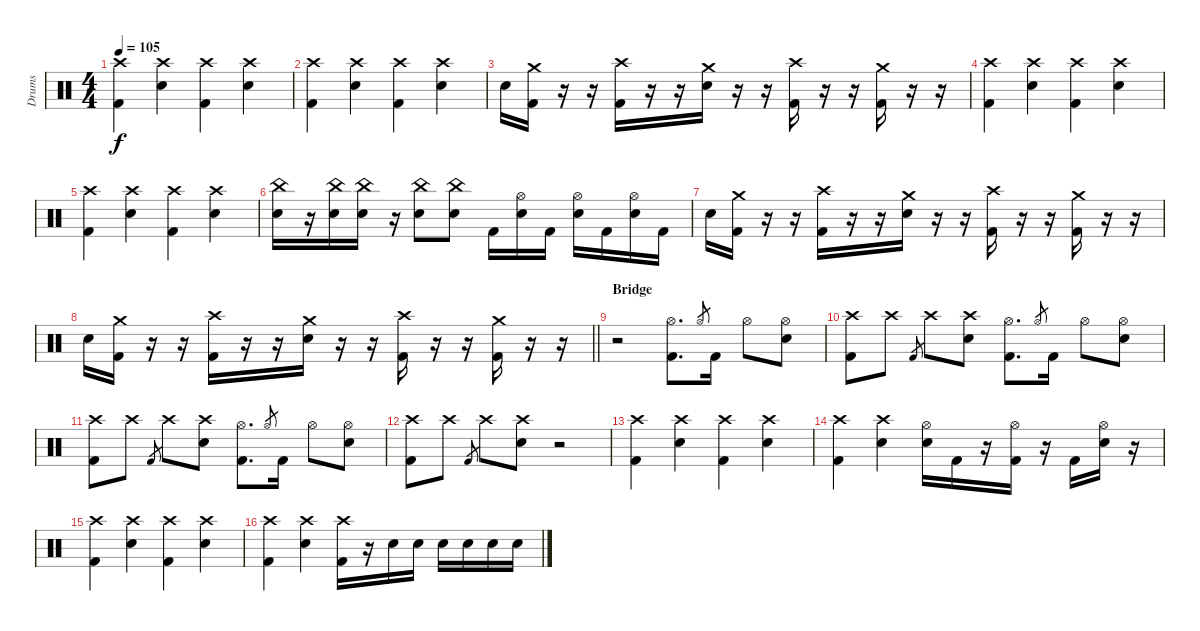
\track ("Drums" "Drums") {instrument percussion}
\staff {score}
\articulation defaults
\ts (4 4)
\tempo 105
\clef neutral
\ks c
("Crash high (hit)" "Kick (hit) 2").4{dy f} ("Crash high (hit)" "Electric Snare (hit)").4 ("Crash high (hit)" "Kick (hit) 2").4 ("Crash high (hit)" "Electric Snare (hit)").4 |
("Crash high (hit)" "Kick (hit) 2").4 ("Crash high (hit)" "Electric Snare (hit)").4 ("Crash high (hit)" "Kick (hit) 2").4 ("Crash high (hit)" "Electric Snare (hit)").4 |
"Electric Snare (hit)".16 ("Crash medium (hit)" "Kick (hit) 2").16 r.16 r.16 ("Crash high (hit)" "Kick (hit) 2").16 r.16 r.16 ("Crash medium (hit)" "Electric Snare (hit)").16 r.16 r.16 ("Crash high (hit)" "Kick (hit) 2").16 r.16 r.16 ("Crash medium (hit)" "Kick (hit) 2").16 r.16 r.16 |
("Crash high (hit)" "Kick (hit) 2").4 ("Crash high (hit)" "Electric Snare (hit)").4 ("Crash high (hit)" "Kick (hit) 2").4 ("Crash high (hit)" "Electric Snare (hit)").4 |
("Crash high (hit)" "Kick (hit) 2").4 ("Crash high (hit)" "Electric Snare (hit)").4 ("Crash high (hit)" "Kick (hit) 2").4 ("Crash high (hit)" "Electric Snare (hit)").4 |
("China (hit)" "Electric Snare (hit)").16 r.16 ("China (hit)" "Electric Snare (hit)").16 ("China (hit)" "Electric Snare (hit)").16 r.16 ("China (hit)" "Electric Snare (hit)").8 ("China (hit)" "Electric Snare (hit)").8 "Kick (hit) 2".16 ("Hi-Hat (open)" "Electric Snare (hit)").16 "Kick (hit) 2".16 ("Hi-Hat (open)" "Electric Snare (hit)").16 "Kick (hit) 2".16 ("Hi-Hat (open)" "Electric Snare (hit)").16 "Kick (hit) 2".16 |
"Electric Snare (hit)".16 ("Crash medium (hit)" "Kick (hit) 2").16 r.16 r.16 ("Crash high (hit)" "Kick (hit) 2").16 r.16 r.16 ("Crash medium (hit)" "Electric Snare (hit)").16 r.16 r.16 ("Crash high (hit)" "Kick (hit) 2").16 r.16 r.16 ("Crash medium (hit)" "Kick (hit) 2").16 r.16 r.16 |
\barLineRight lightlight "Electric Snare (hit)".16
("Crash medium (hit)" "Kick (hit) 2").16 r.16 r.16 ("Crash high (hit)" "Kick (hit) 2").16 r.16 r.16 ("Crash medium (hit)" "Electric Snare (hit)").16 r.16 r.16 ("Crash high (hit)" "Kick (hit) 2").16 r.16 r.16 ("Crash medium (hit)" "Kick (hit) 2").16 r.16 r.16 |
\section ("" "Bridge")
r.2 ("Hi-Hat (open)" "Kick (hit) 2").8{d} "Hi-Hat (open)".8{gr} "Kick (hit) 2".16 "Hi-Hat (open)".8 ("Hi-Hat (open)" "Electric Snare (hit)").8 |
("Crash high (hit)" "Kick (hit) 2").8 "Crash high (hit)".8 "Kick (hit) 2".8{gr} "Crash high (hit)".8 ("Crash high (hit)" "Electric Snare (hit)").8 ("Hi-Hat (open)" "Kick (hit) 2").8{d} "Hi-Hat (open)".8{gr} "Kick (hit) 2".16 "Hi-Hat (open)".8 ("Hi-Hat (open)" "Electric Snare (hit)").8 |
("Crash high (hit)" "Kick (hit) 2").8 "Crash high (hit)".8 "Kick (hit) 2".8{gr} "Crash high (hit)".8 ("Crash high (hit)" "Electric Snare (hit)").8 ("Hi-Hat (open)" "Kick (hit) 2").8{d} "Hi-Hat (open)".8{gr} "Kick (hit) 2".16 "Hi-Hat (open)".8 ("Hi-Hat (open)" "Electric Snare (hit)").8 |
("Crash high (hit)" "Kick (hit) 2").8 "Crash high (hit)".8 "Kick (hit) 2".8{gr} "Crash high (hit)".8 ("Crash high (hit)" "Electric Snare (hit)").8 r.2 |
("Crash high (hit)" "Kick (hit) 2").4 ("Crash high (hit)" "Electric Snare (hit)").4 ("Crash high (hit)" "Kick (hit) 2").4 ("Crash high (hit)" "Electric Snare (hit)").4 |
("Crash high (hit)" "Kick (hit) 2").4 ("Crash high (hit)" "Electric Snare (hit)").4 ("Hi-Hat (open)" "Electric Snare (hit)").16 "Kick (hit) 2".16 r.16 ("Hi-Hat (open)" "Kick (hit) 2").16 r.16 "Kick (hit) 2".16 ("Hi-Hat (open)" "Electric Snare (hit)").16 r.16 |
("Crash high (hit)" "Kick (hit) 2").4 ("Crash high (hit)" "Electric Snare (hit)").4 ("Crash high (hit)" "Kick (hit) 2").4 ("Crash high (hit)" "Electric Snare (hit)").4 |
("Crash high (hit)" "Kick (hit) 2").4 ("Crash high (hit)" "Electric Snare (hit)").4 ("Crash high (hit)" "Kick (hit) 2").16 r.16 "Electric Snare (hit)".16 "Electric Snare (hit)".16 "Electric Snare (hit)".16 "Electric Snare (hit)".16 "Electric Snare (hit)".16 "Electric Snare (hit)".16
